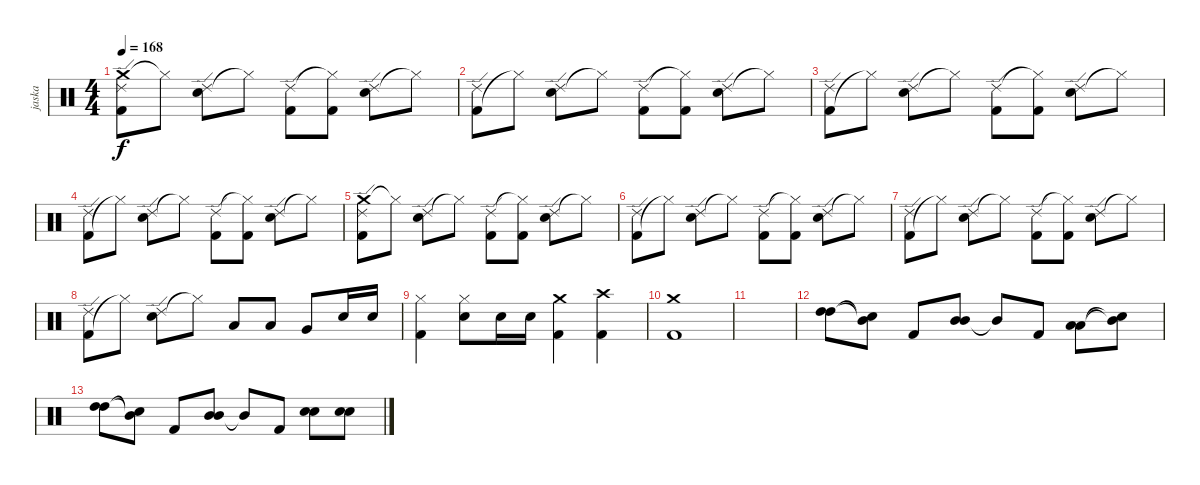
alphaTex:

\track ("jaska" "jaska") {instrument percussion}
\staff
\articulation defaults
\ts (4 4)
\tempo 168
\clef neutral
\ks c
("Crash medium (hit)" "Kick (hit) 2" "Ride (edge) 2").8{dy f} "Hi-Hat (closed)"{t}.8 ("Electric Snare (hit)" "Ride (edge) 2").8 "Hi-Hat (closed)"{t}.8 ("Kick (hit) 2" "Ride (edge) 2").8 ("Kick (hit) 2" "Hi-Hat (closed)"{t}).8 ("Electric Snare (hit)" "Ride (edge) 2").8 "Hi-Hat (closed)"{t}.8 |
("Kick (hit) 2" "Ride (edge) 2").8 "Hi-Hat (closed)"{t}.8 ("Electric Snare (hit)" "Ride (edge) 2").8 "Hi-Hat (closed)"{t}.8 ("Kick (hit) 2" "Ride (edge) 2").8 ("Kick (hit) 2" "Hi-Hat (closed)"{t}).8 ("Electric Snare (hit)" "Ride (edge) 2").8 "Hi-Hat (closed)"{t}.8 |
("Kick (hit) 2" "Ride (edge) 2").8 "Hi-Hat (closed)"{t}.8 ("Electric Snare (hit)" "Ride (edge) 2").8 "Hi-Hat (closed)"{t}.8 ("Kick (hit) 2" "Ride (edge) 2").8 ("Kick (hit) 2" "Hi-Hat (closed)"{t}).8 ("Electric Snare (hit)" "Ride (edge) 2").8 "Hi-Hat (closed)"{t}.8 |
("Kick (hit) 2" "Ride (edge) 2").8 "Hi-Hat (closed)"{t}.8 ("Electric Snare (hit)" "Ride (edge) 2").8 "Hi-Hat (closed)"{t}.8 ("Kick (hit) 2" "Ride (edge) 2").8 ("Kick (hit) 2" "Hi-Hat (closed)"{t}).8 ("Electric Snare (hit)" "Ride (edge) 2").8 "Hi-Hat (closed)"{t}.8 |
("Crash medium (hit)" "Kick (hit) 2" "Ride (edge) 2").8 "Hi-Hat (closed)"{t}.8 ("Electric Snare (hit)" "Ride (edge) 2").8 "Hi-Hat (closed)"{t}.8 ("Kick (hit) 2" "Ride (edge) 2").8 ("Kick (hit) 2" "Hi-Hat (closed)"{t}).8 ("Electric Snare (hit)" "Ride (edge) 2").8 "Hi-Hat (closed)"{t}.8 |
("Kick (hit) 2" "Ride (edge) 2").8 "Hi-Hat (closed)"{t}.8 ("Electric Snare (hit)" "Ride (edge) 2").8 "Hi-Hat (closed)"{t}.8 ("Kick (hit) 2" "Ride (edge) 2").8 ("Kick (hit) 2" "Hi-Hat (closed)"{t}).8 ("Electric Snare (hit)" "Ride (edge) 2").8 "Hi-Hat (closed)"{t}.8 |
("Kick (hit) 2" "Ride (edge) 2").8 "Hi-Hat (closed)"{t}.8 ("Electric Snare (hit)" "Ride (edge) 2").8 "Hi-Hat (closed)"{t}.8 ("Kick (hit) 2" "Ride (edge) 2").8 ("Kick (hit) 2" "Hi-Hat (closed)"{t}).8 ("Electric Snare (hit)" "Ride (edge) 2").8 "Hi-Hat (closed)"{t}.8 |
("Kick (hit) 2" "Ride (edge) 2").8 "Hi-Hat (closed)"{t}.8 ("Electric Snare (hit)" "Ride (edge) 2").8 "Hi-Hat (closed)"{t}.8 "Low Tom (hit)".8 "Low Tom (hit)".8 "Very Low Tom (hit)".8 "Electric Snare (hit)".16 "Electric Snare (hit)".16 |
("Kick (hit) 2" "Hi-Hat (closed)").4 ("Electric Snare (hit)" "Hi-Hat (closed)").8 "Electric Snare (hit)".16 "Electric Snare (hit)".16 ("Crash medium (hit)" "Kick (hit) 2").4 ("Crash high (hit)" "Kick (hit) 2").4 |
("Kick (hit) 2" "Crash medium (hit)").1 |
|
("High Tom (hit)" "High Tom (hit)").8 ("Snare (hit)"{t} "Mid Tom (hit)"{t}).8 "Kick (hit) 2".8 ("Mid Tom (hit)" "Mid Tom (hit)").8 "Mid Tom (hit)"{t}.8 "Kick (hit) 2".8 ("Low Tom (hit)" "Low Tom (hit)").8 ("Snare (hit)"{t} "Mid Tom (hit)"{t}).8 |
("High Tom (hit)" "High Tom (hit)").8 ("Snare (hit)"{t} "Mid Tom (hit)"{t}).8 "Kick (hit) 2".8 ("Mid Tom (hit)" "Mid Tom (hit)").8 "Mid Tom (hit)"{t}.8 "Kick (hit) 2".8 ("Electric Snare (hit)" "Electric Snare (hit)").8 ("Electric Snare (hit)" "Electric Snare (hit)").8
